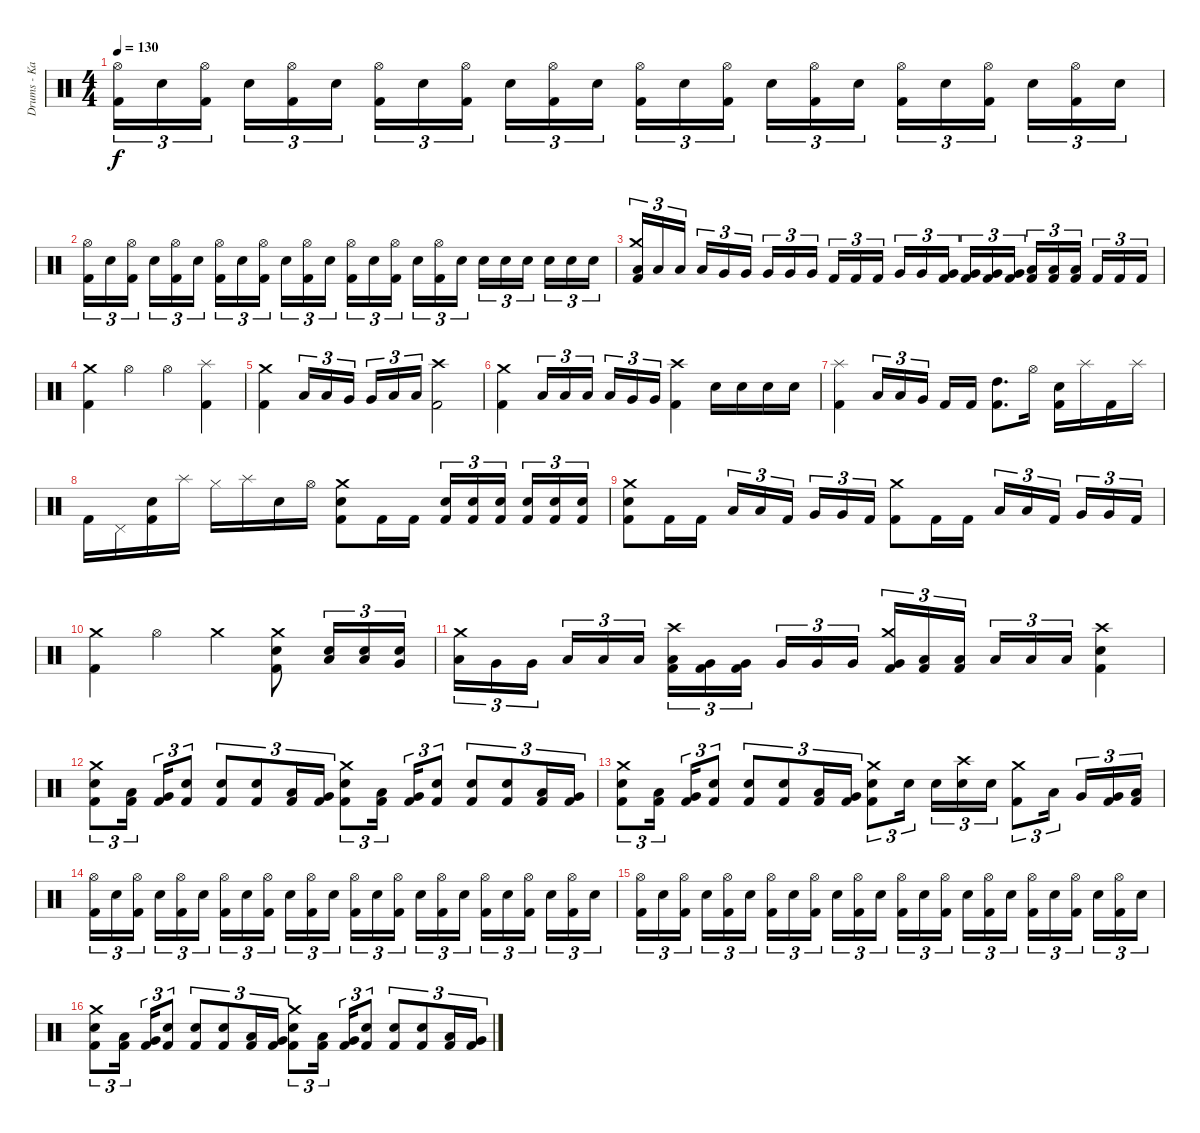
\track ("Drums - Kai Hahto " "Drums - Ka") {instrument percussion}
\staff {score}
\articulation defaults
\ts (4 4)
\tempo 130
\clef neutral
\ks c
("Hi-Hat (open)" "Kick (hit) 2").16{tu (3 2) dy f} "Snare (hit) 2".16{tu (3 2)} ("Hi-Hat (open)" "Kick (hit) 2").16{tu (3 2) beam splitsecondary} "Snare (hit) 2".16{tu (3 2)} ("Hi-Hat (open)" "Kick (hit) 2").16{tu (3 2)} "Snare (hit) 2".16{tu (3 2)} ("Hi-Hat (open)" "Kick (hit) 2").16{tu (3 2)} "Snare (hit) 2".16{tu (3 2)} ("Hi-Hat (open)" "Kick (hit) 2").16{tu (3 2) beam splitsecondary} "Snare (hit) 2".16{tu (3 2)} ("Hi-Hat (open)" "Kick (hit) 2").16{tu (3 2)} "Snare (hit) 2".16{tu (3 2)} ("Hi-Hat (open)" "Kick (hit) 2").16{tu (3 2)} "Snare (hit) 2".16{tu (3 2)} ("Hi-Hat (open)" "Kick (hit) 2").16{tu (3 2) beam splitsecondary} "Snare (hit) 2".16{tu (3 2)} ("Hi-Hat (open)" "Kick (hit) 2").16{tu (3 2)} "Snare (hit) 2".16{tu (3 2)} ("Hi-Hat (open)" "Kick (hit) 2").16{tu (3 2)} "Snare (hit) 2".16{tu (3 2)} ("Hi-Hat (open)" "Kick (hit) 2").16{tu (3 2) beam splitsecondary} "Snare (hit) 2".16{tu (3 2)} ("Hi-Hat (open)" "Kick (hit) 2").16{tu (3 2)} "Snare (hit) 2".16{tu (3 2)} |
("Hi-Hat (open)" "Kick (hit) 2").16{tu (3 2)} "Snare (hit) 2".16{tu (3 2)} ("Hi-Hat (open)" "Kick (hit) 2").16{tu (3 2) beam splitsecondary} "Snare (hit) 2".16{tu (3 2)} ("Hi-Hat (open)" "Kick (hit) 2").16{tu (3 2)} "Snare (hit) 2".16{tu (3 2)} ("Hi-Hat (open)" "Kick (hit) 2").16{tu (3 2)} "Snare (hit) 2".16{tu (3 2)} ("Hi-Hat (open)" "Kick (hit) 2").16{tu (3 2) beam splitsecondary} "Snare (hit) 2".16{tu (3 2)} ("Hi-Hat (open)" "Kick (hit) 2").16{tu (3 2)} "Snare (hit) 2".16{tu (3 2)} ("Hi-Hat (open)" "Kick (hit) 2").16{tu (3 2)} "Snare (hit) 2".16{tu (3 2)} ("Hi-Hat (open)" "Kick (hit) 2").16{tu (3 2) beam splitsecondary} "Snare (hit) 2".16{tu (3 2)} ("Hi-Hat (open)" "Kick (hit) 2").16{tu (3 2)} "Snare (hit) 2".16{tu (3 2)} "Snare (hit) 2".16{tu (3 2)} "Snare (hit) 2".16{tu (3 2)} "Snare (hit) 2".16{tu (3 2) beam splitsecondary} "Snare (hit) 2".16{tu (3 2)} "Snare (hit) 2".16{tu (3 2)} "Snare (hit) 2".16{tu (3 2)} |
("Crash medium (hit)" "Low Tom (hit)" "Kick (hit) 2").16{tu (3 2)} "Low Tom (hit)".16{tu (3 2)} "Low Tom (hit)".16{tu (3 2) beam splitsecondary} "Low Tom (hit)".16{tu (3 2)} "Very Low Tom (hit)".16{tu (3 2)} "Very Low Tom (hit)".16{tu (3 2)} "Very Low Tom (hit)".16{tu (3 2)} "Very Low Tom (hit)".16{tu (3 2)} "Very Low Tom (hit)".16{tu (3 2) beam splitsecondary} "Kick (hit) 2".16{tu (3 2)} "Kick (hit) 2".16{tu (3 2)} "Kick (hit) 2".16{tu (3 2)} "Very Low Tom (hit)".16{tu (3 2)} "Very Low Tom (hit)".16{tu (3 2)} ("Very Low Tom (hit)" "Kick (hit) 2").16{tu (3 2) beam splitsecondary} ("Very Low Tom (hit)" "Kick (hit) 2").16{tu (3 2)} ("Very Low Tom (hit)" "Kick (hit) 2").16{tu (3 2)} ("Very Low Tom (hit)" "Kick (hit) 2").16{tu (3 2)} ("Low Floor Tom (hit)" "Kick (hit) 2").16{tu (3 2)} ("Low Floor Tom (hit)" "Kick (hit) 2").16{tu (3 2)} ("Low Floor Tom (hit)" "Kick (hit) 2").16{tu (3 2) beam splitsecondary} "Kick (hit) 2".16{tu (3 2)} "Kick (hit) 2".16{tu (3 2)} "Kick (hit) 2".16{tu (3 2)} |
("Crash medium (hit)" "Kick (hit) 2").4 "Hi-Hat (open)".4 "Hi-Hat (open)".4 ("Splash (hit)" "Kick (hit) 2").4 |
("Crash medium (hit)" "Kick (hit) 2").4 "Low Tom (hit)".16{tu (3 2)} "Low Tom (hit)".16{tu (3 2)} "Very Low Tom (hit)".16{tu (3 2) beam splitsecondary} "Very Low Tom (hit)".16{tu (3 2)} "Low Floor Tom (hit)".16{tu (3 2)} "Low Floor Tom (hit)".16{tu (3 2)} ("Crash high (hit)" "Kick (hit) 2").2 |
("Crash medium (hit)" "Kick (hit) 2").4 "Low Tom (hit)".16{tu (3 2)} "Low Tom (hit)".16{tu (3 2)} "Low Tom (hit)".16{tu (3 2) beam splitsecondary} "Low Tom (hit)".16{tu (3 2)} "Very Low Tom (hit)".16{tu (3 2)} "Very Low Tom (hit)".16{tu (3 2)} ("Crash high (hit)" "Kick (hit) 2").4 "Snare (hit) 2".16 "Snare (hit) 2".16 "Snare (hit) 2".16 "Snare (hit) 2".16 |
("Splash (hit)" "Kick (hit) 2").4 "Low Tom (hit)".16{tu (3 2)} "Low Tom (hit)".16{tu (3 2)} "Very Low Tom (hit)".16{tu (3 2) beam splitsecondary} "Kick (hit) 2".16 "Kick (hit) 2".16 ("High Tom (hit)" "Kick (hit) 2").8{d} "Hi-Hat (open)".16 ("Snare (hit) 2" "Kick (hit) 2").16 "Splash (hit)".16 "Kick (hit) 2".16 "Splash (hit)".16 |
"Kick (hit) 2".16 "Pedal Hi-Hat (hit)".16 ("Snare (hit) 2" "Kick (hit) 2").16 "Splash (hit)".16 "Hi-Hat (closed)".16 "Splash (hit)".16 "Snare (hit) 2".16 "Hi-Hat (open)".16 ("Crash medium (hit)" "Snare (hit) 2" "Kick (hit) 2").8 "Kick (hit) 2".16 "Kick (hit) 2".16 ("Snare (hit) 2" "Kick (hit) 2").16{tu (3 2)} ("Snare (hit) 2" "Kick (hit) 2").16{tu (3 2)} ("Snare (hit) 2" "Kick (hit) 2").16{tu (3 2) beam splitsecondary} ("Snare (hit) 2" "Kick (hit) 2").16{tu (3 2)} ("Snare (hit) 2" "Kick (hit) 2").16{tu (3 2)} ("Snare (hit) 2" "Kick (hit) 2").16{tu (3 2)} |
("Crash medium (hit)" "Snare (hit) 2" "Kick (hit) 2").8 "Kick (hit) 2".16 "Kick (hit) 2".16 "Low Tom (hit)".16{tu (3 2)} "Low Tom (hit)".16{tu (3 2)} "Kick (hit) 2".16{tu (3 2) beam splitsecondary} "Very Low Tom (hit)".16{tu (3 2)} "Very Low Tom (hit)".16{tu (3 2)} "Kick (hit) 2".16{tu (3 2)} ("Crash medium (hit)" "Kick (hit) 2").8 "Kick (hit) 2".16 "Kick (hit) 2".16 "Low Tom (hit)".16{tu (3 2)} "Low Tom (hit)".16{tu (3 2)} "Kick (hit) 2".16{tu (3 2) beam splitsecondary} "Very Low Tom (hit)".16{tu (3 2)} "Very Low Tom (hit)".16{tu (3 2)} "Kick (hit) 2".16{tu (3 2)} |
("Crash medium (hit)" "Kick (hit) 2").4 "Hi-Hat (open)".4 "Crash medium (hit)".4 ("Crash medium (hit)" "Snare (hit) 2" "Kick (hit) 2").8 ("Low Tom (hit)" "Snare (hit) 2").16{tu (3 2)} ("Low Tom (hit)" "Snare (hit) 2").16{tu (3 2)} ("Very Low Tom (hit)" "Snare (hit) 2").16{tu (3 2)} |
("Crash medium (hit)" "Low Tom (hit)").16{tu (3 2)} "Very Low Tom (hit)".16{tu (3 2)} "Very Low Tom (hit)".16{tu (3 2) beam splitsecondary} "Low Tom (hit)".16{tu (3 2)} "Low Tom (hit)".16{tu (3 2)} "Low Tom (hit)".16{tu (3 2)} ("Crash high (hit)" "Low Tom (hit)" "Kick (hit) 2").16{tu (3 2)} ("Very Low Tom (hit)" "Kick (hit) 2").16{tu (3 2)} ("Very Low Tom (hit)" "Kick (hit) 2").16{tu (3 2) beam splitsecondary} "Very Low Tom (hit)".16{tu (3 2)} "Very Low Tom (hit)".16{tu (3 2)} "Very Low Tom (hit)".16{tu (3 2)} ("Crash medium (hit)" "Very Low Tom (hit)" "Kick (hit) 2").16{tu (3 2)} ("Low Floor Tom (hit)" "Kick (hit) 2").16{tu (3 2)} ("Low Floor Tom (hit)" "Kick (hit) 2").16{tu (3 2) beam splitsecondary} "Low Floor Tom (hit)".16{tu (3 2)} "Low Floor Tom (hit)".16{tu (3 2)} "Low Floor Tom (hit)".16{tu (3 2)} ("Crash high (hit)" "Snare (hit) 2" "Kick (hit) 2").4 |
("Crash medium (hit)" "Snare (hit) 2" "Kick (hit) 2").8{tu (3 2)} ("Low Tom (hit)" "Kick (hit) 2").16{tu (3 2) beam splitsecondary} ("Very Low Tom (hit)" "Kick (hit) 2").16{tu (3 2)} ("Snare (hit) 2" "Kick (hit) 2").8{tu (3 2)} ("Snare (hit) 2" "Kick (hit) 2").8{tu (3 2)} ("Snare (hit) 2" "Kick (hit) 2").8{tu (3 2)} ("Low Tom (hit)" "Kick (hit) 2").16{tu (3 2)} ("Very Low Tom (hit)" "Kick (hit) 2").16{tu (3 2)} ("Crash medium (hit)" "Snare (hit) 2" "Kick (hit) 2").8{tu (3 2)} ("Low Tom (hit)" "Kick (hit) 2").16{tu (3 2) beam splitsecondary} ("Very Low Tom (hit)" "Kick (hit) 2").16{tu (3 2)} ("Snare (hit) 2" "Kick (hit) 2").8{tu (3 2)} ("Snare (hit) 2" "Kick (hit) 2").8{tu (3 2)} ("Snare (hit) 2" "Kick (hit) 2").8{tu (3 2)} ("Low Tom (hit)" "Kick (hit) 2").16{tu (3 2)} ("Very Low Tom (hit)" "Kick (hit) 2").16{tu (3 2)} |
("Crash medium (hit)" "Snare (hit) 2" "Kick (hit) 2").8{tu (3 2)} ("Low Tom (hit)" "Kick (hit) 2").16{tu (3 2) beam splitsecondary} ("Very Low Tom (hit)" "Kick (hit) 2").16{tu (3 2)} ("Snare (hit) 2" "Kick (hit) 2").8{tu (3 2)} ("Snare (hit) 2" "Kick (hit) 2").8{tu (3 2)} ("Snare (hit) 2" "Kick (hit) 2").8{tu (3 2)} ("Low Tom (hit)" "Kick (hit) 2").16{tu (3 2)} ("Very Low Tom (hit)" "Kick (hit) 2").16{tu (3 2)} ("Crash medium (hit)" "Snare (hit) 2" "Kick (hit) 2").8{tu (3 2)} "Snare (hit) 2".16{tu (3 2) beam splitsecondary} "Snare (hit) 2".16{tu (3 2)} ("Crash high (hit)" "Snare (hit) 2").16{tu (3 2)} "Snare (hit) 2".16{tu (3 2)} ("Crash medium (hit)" "Kick (hit) 2").8{tu (3 2)} "Low Tom (hit)".16{tu (3 2) beam splitsecondary} "Very Low Tom (hit)".16{tu (3 2)} ("Very Low Tom (hit)" "Kick (hit) 2").16{tu (3 2)} ("Low Floor Tom (hit)" "Kick (hit) 2").16{tu (3 2)} |
("Hi-Hat (open)" "Kick (hit) 2").16{tu (3 2)} "Snare (hit) 2".16{tu (3 2)} ("Hi-Hat (open)" "Kick (hit) 2").16{tu (3 2) beam splitsecondary} "Snare (hit) 2".16{tu (3 2)} ("Hi-Hat (open)" "Kick (hit) 2").16{tu (3 2)} "Snare (hit) 2".16{tu (3 2)} ("Hi-Hat (open)" "Kick (hit) 2").16{tu (3 2)} "Snare (hit) 2".16{tu (3 2)} ("Hi-Hat (open)" "Kick (hit) 2").16{tu (3 2) beam splitsecondary} "Snare (hit) 2".16{tu (3 2)} ("Hi-Hat (open)" "Kick (hit) 2").16{tu (3 2)} "Snare (hit) 2".16{tu (3 2)} ("Hi-Hat (open)" "Kick (hit) 2").16{tu (3 2)} "Snare (hit) 2".16{tu (3 2)} ("Hi-Hat (open)" "Kick (hit) 2").16{tu (3 2) beam splitsecondary} "Snare (hit) 2".16{tu (3 2)} ("Hi-Hat (open)" "Kick (hit) 2").16{tu (3 2)} "Snare (hit) 2".16{tu (3 2)} ("Hi-Hat (open)" "Kick (hit) 2").16{tu (3 2)} "Snare (hit) 2".16{tu (3 2)} ("Hi-Hat (open)" "Kick (hit) 2").16{tu (3 2) beam splitsecondary} "Snare (hit) 2".16{tu (3 2)} ("Hi-Hat (open)" "Kick (hit) 2").16{tu (3 2)} "Snare (hit) 2".16{tu (3 2)} |
("Hi-Hat (open)" "Kick (hit) 2").16{tu (3 2)} "Snare (hit) 2".16{tu (3 2)} ("Hi-Hat (open)" "Kick (hit) 2").16{tu (3 2) beam splitsecondary} "Snare (hit) 2".16{tu (3 2)} ("Hi-Hat (open)" "Kick (hit) 2").16{tu (3 2)} "Snare (hit) 2".16{tu (3 2)} ("Hi-Hat (open)" "Kick (hit) 2").16{tu (3 2)} "Snare (hit) 2".16{tu (3 2)} ("Hi-Hat (open)" "Kick (hit) 2").16{tu (3 2) beam splitsecondary} "Snare (hit) 2".16{tu (3 2)} ("Hi-Hat (open)" "Kick (hit) 2").16{tu (3 2)} "Snare (hit) 2".16{tu (3 2)} ("Hi-Hat (open)" "Kick (hit) 2").16{tu (3 2)} "Snare (hit) 2".16{tu (3 2)} ("Hi-Hat (open)" "Kick (hit) 2").16{tu (3 2) beam splitsecondary} "Snare (hit) 2".16{tu (3 2)} ("Hi-Hat (open)" "Kick (hit) 2").16{tu (3 2)} "Snare (hit) 2".16{tu (3 2)} ("Hi-Hat (open)" "Kick (hit) 2").16{tu (3 2)} "Snare (hit) 2".16{tu (3 2)} ("Hi-Hat (open)" "Kick (hit) 2").16{tu (3 2) beam splitsecondary} "Snare (hit) 2".16{tu (3 2)} ("Hi-Hat (open)" "Kick (hit) 2").16{tu (3 2)} "Snare (hit) 2".16{tu (3 2)} |
("Crash medium (hit)" "Snare (hit) 2" "Kick (hit) 2").8{tu (3 2)} ("Low Tom (hit)" "Kick (hit) 2").16{tu (3 2) beam splitsecondary} ("Very Low Tom (hit)" "Kick (hit) 2").16{tu (3 2)} ("Snare (hit) 2" "Kick (hit) 2").8{tu (3 2)} ("Snare (hit) 2" "Kick (hit) 2").8{tu (3 2)} ("Snare (hit) 2" "Kick (hit) 2").8{tu (3 2)} ("Low Tom (hit)" "Kick (hit) 2").16{tu (3 2)} ("Very Low Tom (hit)" "Kick (hit) 2").16{tu (3 2)} ("Crash medium (hit)" "Snare (hit) 2" "Kick (hit) 2").8{tu (3 2)} ("Low Tom (hit)" "Kick (hit) 2").16{tu (3 2) beam splitsecondary} ("Very Low Tom (hit)" "Kick (hit) 2").16{tu (3 2)} ("Snare (hit) 2" "Kick (hit) 2").8{tu (3 2)} ("Snare (hit) 2" "Kick (hit) 2").8{tu (3 2)} ("Snare (hit) 2" "Kick (hit) 2").8{tu (3 2)} ("Low Tom (hit)" "Kick (hit) 2").16{tu (3 2)} ("Very Low Tom (hit)" "Kick (hit) 2").16{tu (3 2)}
